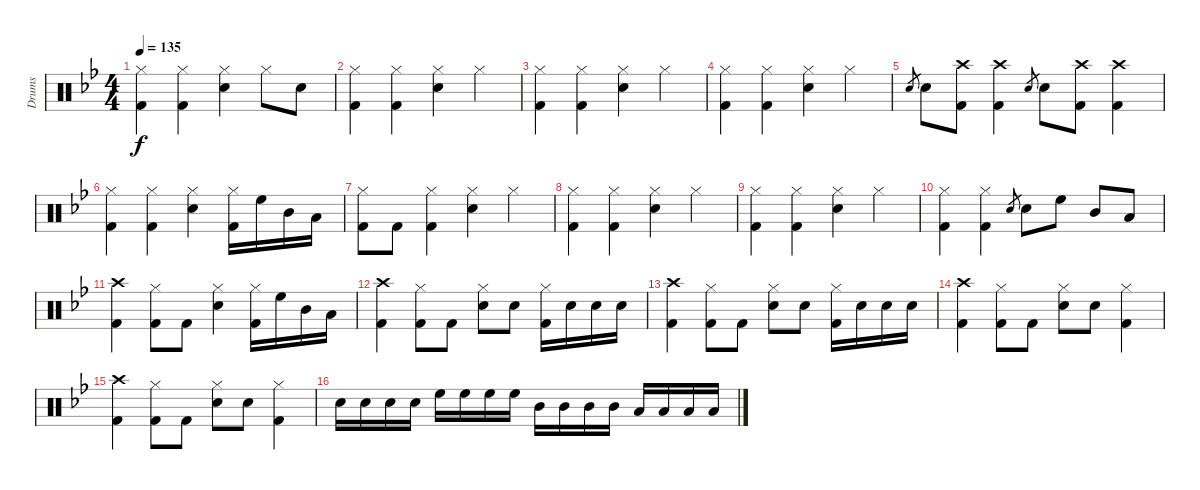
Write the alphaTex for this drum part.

\track ("Drums" "Drums") {instrument percussion}
\staff {score}
\articulation defaults
\ts (4 4)
\tempo 135
\clef neutral
\ks bb
("Hi-Hat (closed)" "Kick (hit) 2").4{dy f} ("Hi-Hat (closed)" "Kick (hit) 2").4 ("Hi-Hat (closed)" "Snare (hit) 2").4 "Hi-Hat (closed)".8 "Snare (hit) 2".8 |
("Hi-Hat (closed)" "Kick (hit) 2").4 ("Hi-Hat (closed)" "Kick (hit) 2").4 ("Hi-Hat (closed)" "Snare (hit) 2").4 "Hi-Hat (closed)".4 |
("Hi-Hat (closed)" "Kick (hit) 2").4 ("Hi-Hat (closed)" "Kick (hit) 2").4 ("Hi-Hat (closed)" "Snare (hit) 2").4 "Hi-Hat (closed)".4 |
("Hi-Hat (closed)" "Kick (hit) 2").4 ("Hi-Hat (closed)" "Kick (hit) 2").4 ("Hi-Hat (closed)" "Snare (hit) 2").4 "Hi-Hat (closed)".4 |
"Snare (hit) 2".8{gr} "Snare (hit) 2".8 ("Crash high (hit)" "Kick (hit) 2").8 ("Crash high (hit)" "Kick (hit) 2").4 "Snare (hit) 2".8{gr} "Snare (hit) 2".8 ("Crash high (hit)" "Kick (hit) 2").8 ("Crash high (hit)" "Kick (hit) 2").4 |
("Hi-Hat (closed)" "Kick (hit) 2").4 ("Hi-Hat (closed)" "Kick (hit) 2").4 ("Hi-Hat (closed)" "Snare (hit) 2").4 ("Hi-Hat (closed)" "Kick (hit) 2").16 "High Floor Tom (hit)".16 "Mid Tom (hit)".16 "Low Tom (hit)".16 |
("Hi-Hat (closed)" "Kick (hit) 2").8 "Kick (hit) 2".8 ("Hi-Hat (closed)" "Kick (hit) 2").4 ("Hi-Hat (closed)" "Snare (hit) 2").4 "Hi-Hat (closed)".4 |
("Hi-Hat (closed)" "Kick (hit) 2").4 ("Hi-Hat (closed)" "Kick (hit) 2").4 ("Hi-Hat (closed)" "Snare (hit) 2").4 "Hi-Hat (closed)".4 |
("Hi-Hat (closed)" "Kick (hit) 2").4 ("Hi-Hat (closed)" "Kick (hit) 2").4 ("Hi-Hat (closed)" "Snare (hit) 2").4 "Hi-Hat (closed)".4 |
("Hi-Hat (closed)" "Kick (hit) 2").4 ("Hi-Hat (closed)" "Kick (hit) 2").4 "Snare (hit) 2".8{gr} "Snare (hit) 2".8 "High Floor Tom (hit)".8 "Mid Tom (hit)".8 "Low Tom (hit)".8 |
("Crash high (hit)" "Kick (hit) 2").4 ("Hi-Hat (closed)" "Kick (hit) 2").8 "Kick (hit) 2".8 ("Hi-Hat (closed)" "Snare (hit) 2").4 ("Hi-Hat (closed)" "Kick (hit) 2").16 "High Floor Tom (hit)".16 "Mid Tom (hit)".16 "Low Tom (hit)".16 |
("Crash high (hit)" "Kick (hit) 2").4 ("Hi-Hat (closed)" "Kick (hit) 2").8 "Kick (hit) 2".8 ("Hi-Hat (closed)" "Snare (hit) 2").8 "Snare (hit) 2".8 ("Hi-Hat (closed)" "Kick (hit) 2").16 "Snare (hit) 2".16 "Snare (hit) 2".16 "Snare (hit) 2".16 |
("Crash high (hit)" "Kick (hit) 2").4 ("Hi-Hat (closed)" "Kick (hit) 2").8 "Kick (hit) 2".8 ("Hi-Hat (closed)" "Snare (hit) 2").8 "Snare (hit) 2".8 ("Hi-Hat (closed)" "Kick (hit) 2").16 "Snare (hit) 2".16 "Snare (hit) 2".16 "Snare (hit) 2".16 |
("Crash high (hit)" "Kick (hit) 2").4 ("Hi-Hat (closed)" "Kick (hit) 2").8 "Kick (hit) 2".8 ("Hi-Hat (closed)" "Snare (hit) 2").8 "Snare (hit) 2".8 ("Hi-Hat (closed)" "Kick (hit) 2").4 |
("Crash high (hit)" "Kick (hit) 2").4 ("Hi-Hat (closed)" "Kick (hit) 2").8 "Kick (hit) 2".8 ("Hi-Hat (closed)" "Snare (hit) 2").8 "Snare (hit) 2".8 ("Hi-Hat (closed)" "Kick (hit) 2").4 |
"Snare (hit) 2".16 "Snare (hit) 2".16 "Snare (hit) 2".16 "Snare (hit) 2".16 "High Floor Tom (hit)".16 "High Floor Tom (hit)".16 "High Floor Tom (hit)".16 "High Floor Tom (hit)".16 "Mid Tom (hit)".16 "Mid Tom (hit)".16 "Mid Tom (hit)".16 "Mid Tom (hit)".16 "Low Tom (hit)".16 "Low Tom (hit)".16 "Low Floor Tom (hit)".16 "Low Floor Tom (hit)".16
